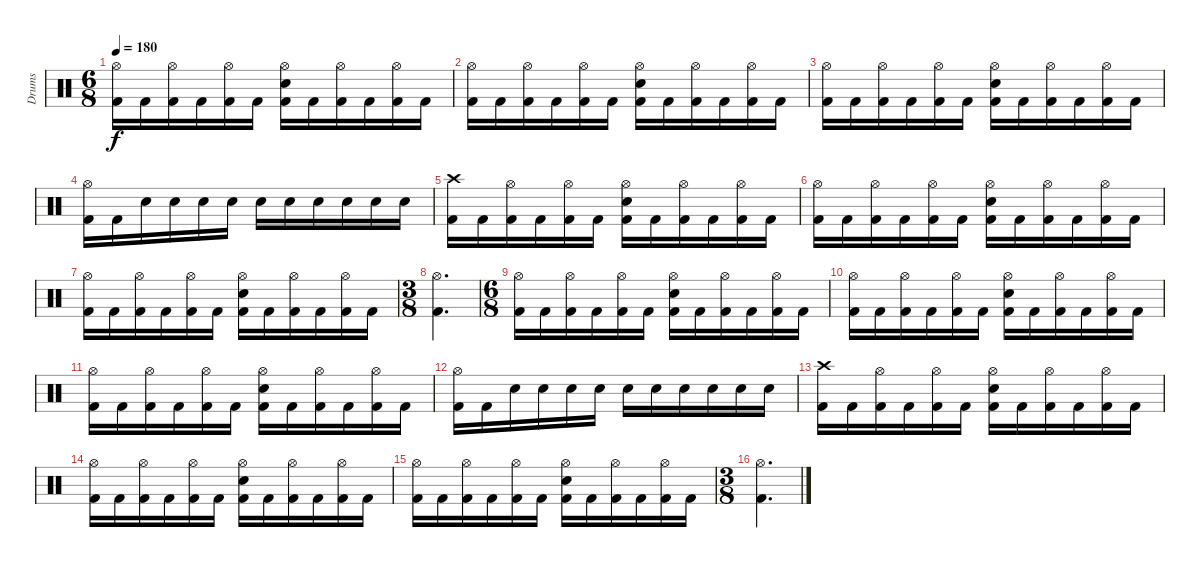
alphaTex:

\track ("Drums" "Drums") {instrument percussion}
\staff {score}
\articulation defaults
\ts (6 8)
\tempo 180
\clef neutral
\ks c
("Kick (hit) 2" "Hi-Hat (open)").16{dy f} "Kick (hit) 2".16 ("Kick (hit) 2" "Hi-Hat (open)").16 "Kick (hit) 2".16 ("Kick (hit) 2" "Hi-Hat (open)").16 "Kick (hit) 2".16 ("Kick (hit) 2" "Electric Snare (hit)" "Hi-Hat (open)").16 "Kick (hit) 2".16 ("Kick (hit) 2" "Hi-Hat (open)").16 "Kick (hit) 2".16 ("Kick (hit) 2" "Hi-Hat (open)").16 "Kick (hit) 2".16 |
("Kick (hit) 2" "Hi-Hat (open)").16 "Kick (hit) 2".16 ("Kick (hit) 2" "Hi-Hat (open)").16 "Kick (hit) 2".16 ("Kick (hit) 2" "Hi-Hat (open)").16 "Kick (hit) 2".16 ("Kick (hit) 2" "Electric Snare (hit)" "Hi-Hat (open)").16 "Kick (hit) 2".16 ("Kick (hit) 2" "Hi-Hat (open)").16 "Kick (hit) 2".16 ("Kick (hit) 2" "Hi-Hat (open)").16 "Kick (hit) 2".16 |
("Kick (hit) 2" "Hi-Hat (open)").16 "Kick (hit) 2".16 ("Kick (hit) 2" "Hi-Hat (open)").16 "Kick (hit) 2".16 ("Kick (hit) 2" "Hi-Hat (open)").16 "Kick (hit) 2".16 ("Kick (hit) 2" "Electric Snare (hit)" "Hi-Hat (open)").16 "Kick (hit) 2".16 ("Kick (hit) 2" "Hi-Hat (open)").16 "Kick (hit) 2".16 ("Kick (hit) 2" "Hi-Hat (open)").16 "Kick (hit) 2".16 |
("Kick (hit) 2" "Hi-Hat (open)").16 "Kick (hit) 2".16 "Electric Snare (hit)".16 "Electric Snare (hit)".16 "Electric Snare (hit)".16 "Electric Snare (hit)".16 "Electric Snare (hit)".16 "Electric Snare (hit)".16 "Electric Snare (hit)".16 "Electric Snare (hit)".16 "Electric Snare (hit)".16 "Electric Snare (hit)".16 |
("Kick (hit) 2" "Crash high (hit)").16 "Kick (hit) 2".16 ("Kick (hit) 2" "Hi-Hat (open)").16 "Kick (hit) 2".16 ("Kick (hit) 2" "Hi-Hat (open)").16 "Kick (hit) 2".16 ("Kick (hit) 2" "Electric Snare (hit)" "Hi-Hat (open)").16 "Kick (hit) 2".16 ("Kick (hit) 2" "Hi-Hat (open)").16 "Kick (hit) 2".16 ("Kick (hit) 2" "Hi-Hat (open)").16 "Kick (hit) 2".16 |
("Kick (hit) 2" "Hi-Hat (open)").16 "Kick (hit) 2".16 ("Kick (hit) 2" "Hi-Hat (open)").16 "Kick (hit) 2".16 ("Kick (hit) 2" "Hi-Hat (open)").16 "Kick (hit) 2".16 ("Kick (hit) 2" "Electric Snare (hit)" "Hi-Hat (open)").16 "Kick (hit) 2".16 ("Kick (hit) 2" "Hi-Hat (open)").16 "Kick (hit) 2".16 ("Kick (hit) 2" "Hi-Hat (open)").16 "Kick (hit) 2".16 |
("Kick (hit) 2" "Hi-Hat (open)").16 "Kick (hit) 2".16 ("Kick (hit) 2" "Hi-Hat (open)").16 "Kick (hit) 2".16 ("Kick (hit) 2" "Hi-Hat (open)").16 "Kick (hit) 2".16 ("Kick (hit) 2" "Electric Snare (hit)" "Hi-Hat (open)").16 "Kick (hit) 2".16 ("Kick (hit) 2" "Hi-Hat (open)").16 "Kick (hit) 2".16 ("Kick (hit) 2" "Hi-Hat (open)").16 "Kick (hit) 2".16 |
\ts (3 8)
("Kick (hit) 2" "Hi-Hat (open)").4{d} |
\ts (6 8)
("Kick (hit) 2" "Hi-Hat (open)").16 "Kick (hit) 2".16 ("Kick (hit) 2" "Hi-Hat (open)").16 "Kick (hit) 2".16 ("Kick (hit) 2" "Hi-Hat (open)").16 "Kick (hit) 2".16 ("Kick (hit) 2" "Electric Snare (hit)" "Hi-Hat (open)").16 "Kick (hit) 2".16 ("Kick (hit) 2" "Hi-Hat (open)").16 "Kick (hit) 2".16 ("Kick (hit) 2" "Hi-Hat (open)").16 "Kick (hit) 2".16 |
("Kick (hit) 2" "Hi-Hat (open)").16 "Kick (hit) 2".16 ("Kick (hit) 2" "Hi-Hat (open)").16 "Kick (hit) 2".16 ("Kick (hit) 2" "Hi-Hat (open)").16 "Kick (hit) 2".16 ("Kick (hit) 2" "Electric Snare (hit)" "Hi-Hat (open)").16 "Kick (hit) 2".16 ("Kick (hit) 2" "Hi-Hat (open)").16 "Kick (hit) 2".16 ("Kick (hit) 2" "Hi-Hat (open)").16 "Kick (hit) 2".16 |
("Kick (hit) 2" "Hi-Hat (open)").16 "Kick (hit) 2".16 ("Kick (hit) 2" "Hi-Hat (open)").16 "Kick (hit) 2".16 ("Kick (hit) 2" "Hi-Hat (open)").16 "Kick (hit) 2".16 ("Kick (hit) 2" "Electric Snare (hit)" "Hi-Hat (open)").16 "Kick (hit) 2".16 ("Kick (hit) 2" "Hi-Hat (open)").16 "Kick (hit) 2".16 ("Kick (hit) 2" "Hi-Hat (open)").16 "Kick (hit) 2".16 |
("Kick (hit) 2" "Hi-Hat (open)").16 "Kick (hit) 2".16 "Electric Snare (hit)".16 "Electric Snare (hit)".16 "Electric Snare (hit)".16 "Electric Snare (hit)".16 "Electric Snare (hit)".16 "Electric Snare (hit)".16 "Electric Snare (hit)".16 "Electric Snare (hit)".16 "Electric Snare (hit)".16 "Electric Snare (hit)".16 |
("Kick (hit) 2" "Crash high (hit)").16 "Kick (hit) 2".16 ("Kick (hit) 2" "Hi-Hat (open)").16 "Kick (hit) 2".16 ("Kick (hit) 2" "Hi-Hat (open)").16 "Kick (hit) 2".16 ("Kick (hit) 2" "Electric Snare (hit)" "Hi-Hat (open)").16 "Kick (hit) 2".16 ("Kick (hit) 2" "Hi-Hat (open)").16 "Kick (hit) 2".16 ("Kick (hit) 2" "Hi-Hat (open)").16 "Kick (hit) 2".16 |
("Kick (hit) 2" "Hi-Hat (open)").16 "Kick (hit) 2".16 ("Kick (hit) 2" "Hi-Hat (open)").16 "Kick (hit) 2".16 ("Kick (hit) 2" "Hi-Hat (open)").16 "Kick (hit) 2".16 ("Kick (hit) 2" "Electric Snare (hit)" "Hi-Hat (open)").16 "Kick (hit) 2".16 ("Kick (hit) 2" "Hi-Hat (open)").16 "Kick (hit) 2".16 ("Kick (hit) 2" "Hi-Hat (open)").16 "Kick (hit) 2".16 |
("Kick (hit) 2" "Hi-Hat (open)").16 "Kick (hit) 2".16 ("Kick (hit) 2" "Hi-Hat (open)").16 "Kick (hit) 2".16 ("Kick (hit) 2" "Hi-Hat (open)").16 "Kick (hit) 2".16 ("Kick (hit) 2" "Electric Snare (hit)" "Hi-Hat (open)").16 "Kick (hit) 2".16 ("Kick (hit) 2" "Hi-Hat (open)").16 "Kick (hit) 2".16 ("Kick (hit) 2" "Hi-Hat (open)").16 "Kick (hit) 2".16 |
\ts (3 8)
("Kick (hit) 2" "Hi-Hat (open)").4{d}
